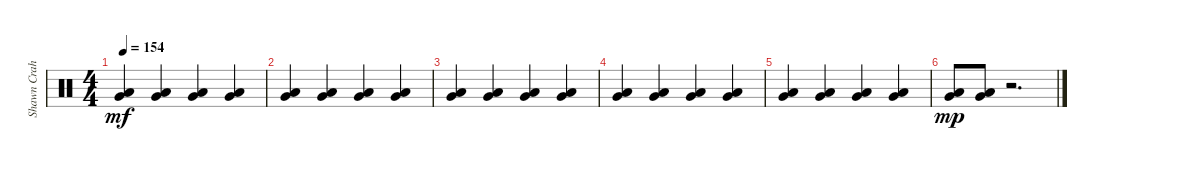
\track ("Shawn Crahan" "Shawn Crah") {instrument percussion}
\staff {score}
\articulation defaults
\ts (4 4)
\tempo 154
\clef neutral
\ks c
("Very Low Tom (hit)" "Low Floor Tom (hit)").4{dy mf} ("Very Low Tom (hit)" "Low Floor Tom (hit)").4 ("Very Low Tom (hit)" "Low Floor Tom (hit)").4 ("Very Low Tom (hit)" "Low Floor Tom (hit)").4 |
("Very Low Tom (hit)" "Low Floor Tom (hit)").4 ("Very Low Tom (hit)" "Low Floor Tom (hit)").4 ("Very Low Tom (hit)" "Low Floor Tom (hit)").4 ("Very Low Tom (hit)" "Low Floor Tom (hit)").4 |
("Very Low Tom (hit)" "Low Floor Tom (hit)").4 ("Very Low Tom (hit)" "Low Floor Tom (hit)").4 ("Very Low Tom (hit)" "Low Floor Tom (hit)").4 ("Very Low Tom (hit)" "Low Floor Tom (hit)").4 |
("Very Low Tom (hit)" "Low Floor Tom (hit)").4 ("Very Low Tom (hit)" "Low Floor Tom (hit)").4 ("Very Low Tom (hit)" "Low Floor Tom (hit)").4 ("Very Low Tom (hit)" "Low Floor Tom (hit)").4 |
("Very Low Tom (hit)" "Low Floor Tom (hit)").4 ("Very Low Tom (hit)" "Low Floor Tom (hit)").4 ("Very Low Tom (hit)" "Low Floor Tom (hit)").4 ("Very Low Tom (hit)" "Low Floor Tom (hit)").4 |
("Very Low Tom (hit)" "Low Floor Tom (hit)").8{dy mp} ("Very Low Tom (hit)" "Low Floor Tom (hit)").8 r.2{d}
